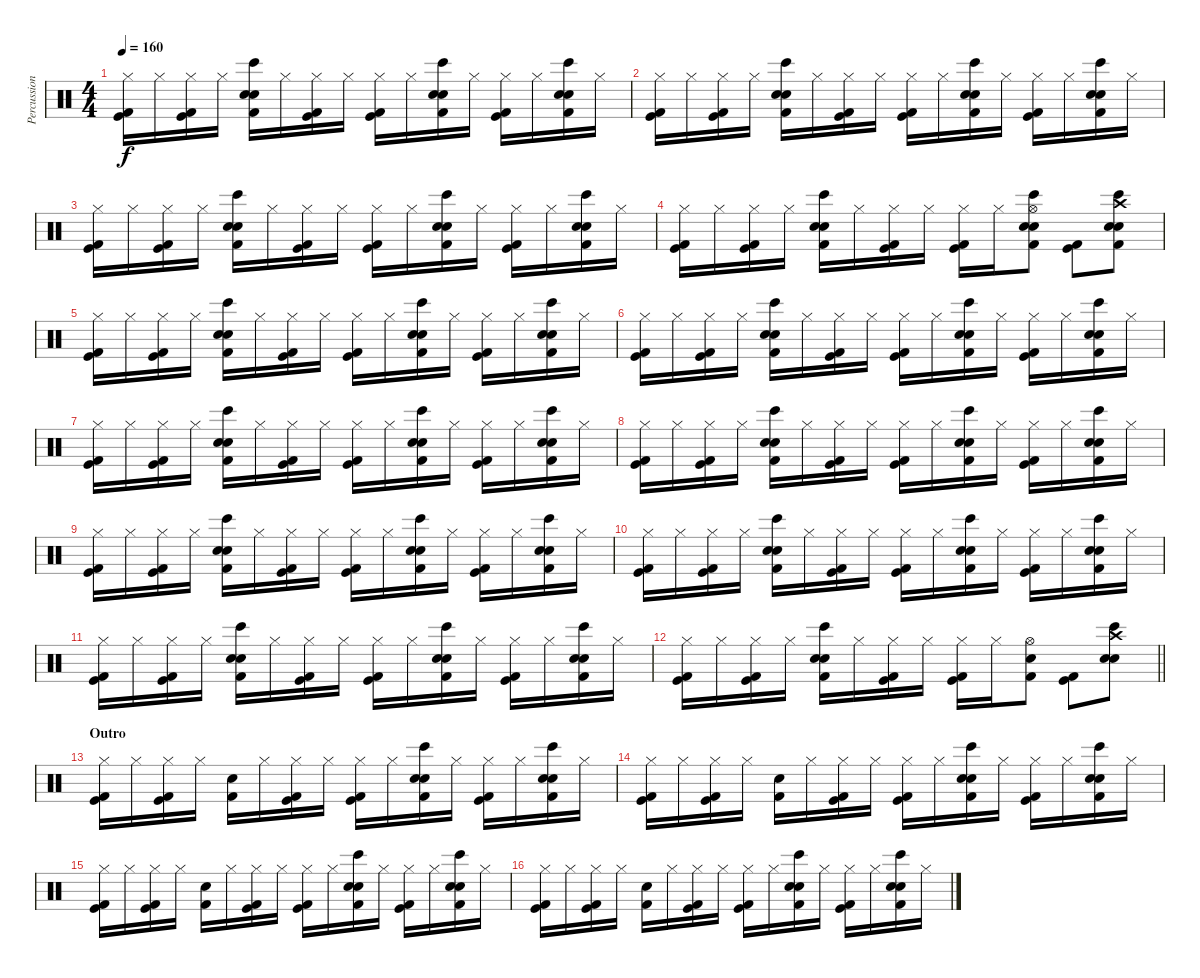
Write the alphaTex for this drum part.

\track ("Percussion" "Percussion") {instrument percussion}
\staff {score}
\articulation defaults
\ts (4 4)
\tempo 160
\clef neutral
\ks c
("Hi-Hat (closed)" "Kick (hit)" "Kick (hit) 2").16{dy f} "Hi-Hat (closed)".16 ("Hi-Hat (closed)" "Kick (hit)" "Kick (hit) 2").16 "Hi-Hat (closed)".16 ("Hand Clap (hit)" "Bongo High (hit)" "Electric Snare (hit)" "Kick (hit) 2").16 "Hi-Hat (closed)".16 ("Hi-Hat (closed)" "Kick (hit)" "Kick (hit) 2").16 "Hi-Hat (closed)".16 ("Hi-Hat (closed)" "Kick (hit)" "Kick (hit) 2").16 "Hi-Hat (closed)".16 ("Hand Clap (hit)" "Bongo High (hit)" "Electric Snare (hit)" "Kick (hit) 2").16 "Hi-Hat (closed)".16 ("Hi-Hat (closed)" "Kick (hit)" "Kick (hit) 2").16 "Hi-Hat (closed)".16 ("Hand Clap (hit)" "Bongo High (hit)" "Electric Snare (hit)" "Kick (hit) 2").16 "Hi-Hat (closed)".16 |
("Hi-Hat (closed)" "Kick (hit)" "Kick (hit) 2").16 "Hi-Hat (closed)".16 ("Hi-Hat (closed)" "Kick (hit)" "Kick (hit) 2").16 "Hi-Hat (closed)".16 ("Hand Clap (hit)" "Bongo High (hit)" "Electric Snare (hit)" "Kick (hit) 2").16 "Hi-Hat (closed)".16 ("Hi-Hat (closed)" "Kick (hit)" "Kick (hit) 2").16 "Hi-Hat (closed)".16 ("Hi-Hat (closed)" "Kick (hit)" "Kick (hit) 2").16 "Hi-Hat (closed)".16 ("Hand Clap (hit)" "Bongo High (hit)" "Electric Snare (hit)" "Kick (hit) 2").16 "Hi-Hat (closed)".16 ("Hi-Hat (closed)" "Kick (hit)" "Kick (hit) 2").16 "Hi-Hat (closed)".16 ("Hand Clap (hit)" "Bongo High (hit)" "Electric Snare (hit)" "Kick (hit) 2").16 "Hi-Hat (closed)".16 |
("Hi-Hat (closed)" "Kick (hit)" "Kick (hit) 2").16 "Hi-Hat (closed)".16 ("Hi-Hat (closed)" "Kick (hit)" "Kick (hit) 2").16 "Hi-Hat (closed)".16 ("Hand Clap (hit)" "Bongo High (hit)" "Electric Snare (hit)" "Kick (hit) 2").16 "Hi-Hat (closed)".16 ("Hi-Hat (closed)" "Kick (hit)" "Kick (hit) 2").16 "Hi-Hat (closed)".16 ("Hi-Hat (closed)" "Kick (hit)" "Kick (hit) 2").16 "Hi-Hat (closed)".16 ("Hand Clap (hit)" "Bongo High (hit)" "Electric Snare (hit)" "Kick (hit) 2").16 "Hi-Hat (closed)".16 ("Hi-Hat (closed)" "Kick (hit)" "Kick (hit) 2").16 "Hi-Hat (closed)".16 ("Hand Clap (hit)" "Bongo High (hit)" "Electric Snare (hit)" "Kick (hit) 2").16 "Hi-Hat (closed)".16 |
("Hi-Hat (closed)" "Kick (hit)" "Kick (hit) 2").16 "Hi-Hat (closed)".16 ("Hi-Hat (closed)" "Kick (hit)" "Kick (hit) 2").16 "Hi-Hat (closed)".16 ("Hand Clap (hit)" "Bongo High (hit)" "Electric Snare (hit)" "Kick (hit) 2").16 "Hi-Hat (closed)".16 ("Hi-Hat (closed)" "Kick (hit)" "Kick (hit) 2").16 "Hi-Hat (closed)".16 ("Hi-Hat (closed)" "Kick (hit)" "Kick (hit) 2").16 "Hi-Hat (closed)".16 ("Hi-Hat (open)" "Hand Clap (hit)" "Bongo High (hit)" "Electric Snare (hit)" "Kick (hit) 2").8 ("Kick (hit)" "Kick (hit) 2").8 ("Crash high (hit)" "Hand Clap (hit)" "Bongo High (hit)" "Electric Snare (hit)" "Kick (hit) 2").8 |
("Hi-Hat (closed)" "Kick (hit)" "Kick (hit) 2").16 "Hi-Hat (closed)".16 ("Hi-Hat (closed)" "Kick (hit)" "Kick (hit) 2").16 "Hi-Hat (closed)".16 ("Hand Clap (hit)" "Bongo High (hit)" "Electric Snare (hit)" "Kick (hit) 2").16 "Hi-Hat (closed)".16 ("Hi-Hat (closed)" "Kick (hit)" "Kick (hit) 2").16 "Hi-Hat (closed)".16 ("Hi-Hat (closed)" "Kick (hit)" "Kick (hit) 2").16 "Hi-Hat (closed)".16 ("Hand Clap (hit)" "Bongo High (hit)" "Electric Snare (hit)" "Kick (hit) 2").16 "Hi-Hat (closed)".16 ("Hi-Hat (closed)" "Kick (hit)" "Kick (hit) 2").16 "Hi-Hat (closed)".16 ("Hand Clap (hit)" "Bongo High (hit)" "Electric Snare (hit)" "Kick (hit) 2").16 "Hi-Hat (closed)".16 |
("Hi-Hat (closed)" "Kick (hit)" "Kick (hit) 2").16 "Hi-Hat (closed)".16 ("Hi-Hat (closed)" "Kick (hit)" "Kick (hit) 2").16 "Hi-Hat (closed)".16 ("Hand Clap (hit)" "Bongo High (hit)" "Electric Snare (hit)" "Kick (hit) 2").16 "Hi-Hat (closed)".16 ("Hi-Hat (closed)" "Kick (hit)" "Kick (hit) 2").16 "Hi-Hat (closed)".16 ("Hi-Hat (closed)" "Kick (hit)" "Kick (hit) 2").16 "Hi-Hat (closed)".16 ("Hand Clap (hit)" "Bongo High (hit)" "Electric Snare (hit)" "Kick (hit) 2").16 "Hi-Hat (closed)".16 ("Hi-Hat (closed)" "Kick (hit)" "Kick (hit) 2").16 "Hi-Hat (closed)".16 ("Hand Clap (hit)" "Bongo High (hit)" "Electric Snare (hit)" "Kick (hit) 2").16 "Hi-Hat (closed)".16 |
("Hi-Hat (closed)" "Kick (hit)" "Kick (hit) 2").16 "Hi-Hat (closed)".16 ("Hi-Hat (closed)" "Kick (hit)" "Kick (hit) 2").16 "Hi-Hat (closed)".16 ("Hand Clap (hit)" "Bongo High (hit)" "Electric Snare (hit)" "Kick (hit) 2").16 "Hi-Hat (closed)".16 ("Hi-Hat (closed)" "Kick (hit)" "Kick (hit) 2").16 "Hi-Hat (closed)".16 ("Hi-Hat (closed)" "Kick (hit)" "Kick (hit) 2").16 "Hi-Hat (closed)".16 ("Hand Clap (hit)" "Bongo High (hit)" "Electric Snare (hit)" "Kick (hit) 2").16 "Hi-Hat (closed)".16 ("Hi-Hat (closed)" "Kick (hit)" "Kick (hit) 2").16 "Hi-Hat (closed)".16 ("Hand Clap (hit)" "Bongo High (hit)" "Electric Snare (hit)" "Kick (hit) 2").16 "Hi-Hat (closed)".16 |
("Hi-Hat (closed)" "Kick (hit)" "Kick (hit) 2").16 "Hi-Hat (closed)".16 ("Hi-Hat (closed)" "Kick (hit)" "Kick (hit) 2").16 "Hi-Hat (closed)".16 ("Hand Clap (hit)" "Bongo High (hit)" "Electric Snare (hit)" "Kick (hit) 2").16 "Hi-Hat (closed)".16 ("Hi-Hat (closed)" "Kick (hit)" "Kick (hit) 2").16 "Hi-Hat (closed)".16 ("Hi-Hat (closed)" "Kick (hit)" "Kick (hit) 2").16 "Hi-Hat (closed)".16 ("Hand Clap (hit)" "Bongo High (hit)" "Electric Snare (hit)" "Kick (hit) 2").16 "Hi-Hat (closed)".16 ("Hi-Hat (closed)" "Kick (hit)" "Kick (hit) 2").16 "Hi-Hat (closed)".16 ("Hand Clap (hit)" "Bongo High (hit)" "Electric Snare (hit)" "Kick (hit) 2").16 "Hi-Hat (closed)".16 |
("Hi-Hat (closed)" "Kick (hit)" "Kick (hit) 2").16 "Hi-Hat (closed)".16 ("Hi-Hat (closed)" "Kick (hit)" "Kick (hit) 2").16 "Hi-Hat (closed)".16 ("Hand Clap (hit)" "Bongo High (hit)" "Electric Snare (hit)" "Kick (hit) 2").16 "Hi-Hat (closed)".16 ("Hi-Hat (closed)" "Kick (hit)" "Kick (hit) 2").16 "Hi-Hat (closed)".16 ("Hi-Hat (closed)" "Kick (hit)" "Kick (hit) 2").16 "Hi-Hat (closed)".16 ("Hand Clap (hit)" "Bongo High (hit)" "Electric Snare (hit)" "Kick (hit) 2").16 "Hi-Hat (closed)".16 ("Hi-Hat (closed)" "Kick (hit)" "Kick (hit) 2").16 "Hi-Hat (closed)".16 ("Hand Clap (hit)" "Bongo High (hit)" "Electric Snare (hit)" "Kick (hit) 2").16 "Hi-Hat (closed)".16 |
("Hi-Hat (closed)" "Kick (hit)" "Kick (hit) 2").16 "Hi-Hat (closed)".16 ("Hi-Hat (closed)" "Kick (hit)" "Kick (hit) 2").16 "Hi-Hat (closed)".16 ("Hand Clap (hit)" "Bongo High (hit)" "Electric Snare (hit)" "Kick (hit) 2").16 "Hi-Hat (closed)".16 ("Hi-Hat (closed)" "Kick (hit)" "Kick (hit) 2").16 "Hi-Hat (closed)".16 ("Hi-Hat (closed)" "Kick (hit)" "Kick (hit) 2").16 "Hi-Hat (closed)".16 ("Hand Clap (hit)" "Bongo High (hit)" "Electric Snare (hit)" "Kick (hit) 2").16 "Hi-Hat (closed)".16 ("Hi-Hat (closed)" "Kick (hit)" "Kick (hit) 2").16 "Hi-Hat (closed)".16 ("Hand Clap (hit)" "Bongo High (hit)" "Electric Snare (hit)" "Kick (hit) 2").16 "Hi-Hat (closed)".16 |
("Hi-Hat (closed)" "Kick (hit)" "Kick (hit) 2").16 "Hi-Hat (closed)".16 ("Hi-Hat (closed)" "Kick (hit)" "Kick (hit) 2").16 "Hi-Hat (closed)".16 ("Hand Clap (hit)" "Bongo High (hit)" "Electric Snare (hit)" "Kick (hit) 2").16 "Hi-Hat (closed)".16 ("Hi-Hat (closed)" "Kick (hit)" "Kick (hit) 2").16 "Hi-Hat (closed)".16 ("Hi-Hat (closed)" "Kick (hit)" "Kick (hit) 2").16 "Hi-Hat (closed)".16 ("Hand Clap (hit)" "Bongo High (hit)" "Electric Snare (hit)" "Kick (hit) 2").16 "Hi-Hat (closed)".16 ("Hi-Hat (closed)" "Kick (hit)" "Kick (hit) 2").16 "Hi-Hat (closed)".16 ("Hand Clap (hit)" "Bongo High (hit)" "Electric Snare (hit)" "Kick (hit) 2").16 "Hi-Hat (closed)".16 |
\barLineRight lightlight
("Hi-Hat (closed)" "Kick (hit)" "Kick (hit) 2").16 "Hi-Hat (closed)".16 ("Hi-Hat (closed)" "Kick (hit)" "Kick (hit) 2").16 "Hi-Hat (closed)".16 ("Hand Clap (hit)" "Bongo High (hit)" "Electric Snare (hit)" "Kick (hit) 2").16 "Hi-Hat (closed)".16 ("Hi-Hat (closed)" "Kick (hit)" "Kick (hit) 2").16 "Hi-Hat (closed)".16 ("Hi-Hat (closed)" "Kick (hit)" "Kick (hit) 2").16 "Hi-Hat (closed)".16 ("Hi-Hat (open)" "Electric Snare (hit)" "Kick (hit) 2").8 ("Kick (hit)" "Kick (hit) 2").8 ("Crash high (hit)" "Hand Clap (hit)" "Bongo High (hit)" "Electric Snare (hit)").8 |
\section ("" "Outro")
("Hi-Hat (closed)" "Kick (hit)" "Kick (hit) 2").16 "Hi-Hat (closed)".16 ("Hi-Hat (closed)" "Kick (hit)" "Kick (hit) 2").16 "Hi-Hat (closed)".16 ("Electric Snare (hit)" "Kick (hit) 2").16 "Hi-Hat (closed)".16 ("Hi-Hat (closed)" "Kick (hit)" "Kick (hit) 2").16 "Hi-Hat (closed)".16 ("Hi-Hat (closed)" "Kick (hit)" "Kick (hit) 2").16 "Hi-Hat (closed)".16 ("Hand Clap (hit)" "Bongo High (hit)" "Electric Snare (hit)" "Kick (hit) 2").16 "Hi-Hat (closed)".16 ("Hi-Hat (closed)" "Kick (hit)" "Kick (hit) 2").16 "Hi-Hat (closed)".16 ("Hand Clap (hit)" "Bongo High (hit)" "Electric Snare (hit)" "Kick (hit) 2").16 "Hi-Hat (closed)".16 |
("Hi-Hat (closed)" "Kick (hit)" "Kick (hit) 2").16 "Hi-Hat (closed)".16 ("Hi-Hat (closed)" "Kick (hit)" "Kick (hit) 2").16 "Hi-Hat (closed)".16 ("Electric Snare (hit)" "Kick (hit) 2").16 "Hi-Hat (closed)".16 ("Hi-Hat (closed)" "Kick (hit)" "Kick (hit) 2").16 "Hi-Hat (closed)".16 ("Hi-Hat (closed)" "Kick (hit)" "Kick (hit) 2").16 "Hi-Hat (closed)".16 ("Hand Clap (hit)" "Bongo High (hit)" "Electric Snare (hit)" "Kick (hit) 2").16 "Hi-Hat (closed)".16 ("Hi-Hat (closed)" "Kick (hit)" "Kick (hit) 2").16 "Hi-Hat (closed)".16 ("Hand Clap (hit)" "Bongo High (hit)" "Electric Snare (hit)" "Kick (hit) 2").16 "Hi-Hat (closed)".16 |
("Hi-Hat (closed)" "Kick (hit)" "Kick (hit) 2").16 "Hi-Hat (closed)".16 ("Hi-Hat (closed)" "Kick (hit)" "Kick (hit) 2").16 "Hi-Hat (closed)".16 ("Electric Snare (hit)" "Kick (hit) 2").16 "Hi-Hat (closed)".16 ("Hi-Hat (closed)" "Kick (hit)" "Kick (hit) 2").16 "Hi-Hat (closed)".16 ("Hi-Hat (closed)" "Kick (hit)" "Kick (hit) 2").16 "Hi-Hat (closed)".16 ("Hand Clap (hit)" "Bongo High (hit)" "Electric Snare (hit)" "Kick (hit) 2").16 "Hi-Hat (closed)".16 ("Hi-Hat (closed)" "Kick (hit)" "Kick (hit) 2").16 "Hi-Hat (closed)".16 ("Hand Clap (hit)" "Bongo High (hit)" "Electric Snare (hit)" "Kick (hit) 2").16 "Hi-Hat (closed)".16 |
("Hi-Hat (closed)" "Kick (hit)" "Kick (hit) 2").16 "Hi-Hat (closed)".16 ("Hi-Hat (closed)" "Kick (hit)" "Kick (hit) 2").16 "Hi-Hat (closed)".16 ("Electric Snare (hit)" "Kick (hit) 2").16 "Hi-Hat (closed)".16 ("Hi-Hat (closed)" "Kick (hit)" "Kick (hit) 2").16 "Hi-Hat (closed)".16 ("Hi-Hat (closed)" "Kick (hit)" "Kick (hit) 2").16 "Hi-Hat (closed)".16 ("Hand Clap (hit)" "Bongo High (hit)" "Electric Snare (hit)" "Kick (hit) 2").16 "Hi-Hat (closed)".16 ("Hi-Hat (closed)" "Kick (hit)" "Kick (hit) 2").16 "Hi-Hat (closed)".16 ("Hand Clap (hit)" "Bongo High (hit)" "Electric Snare (hit)" "Kick (hit) 2").16 "Hi-Hat (closed)".16
